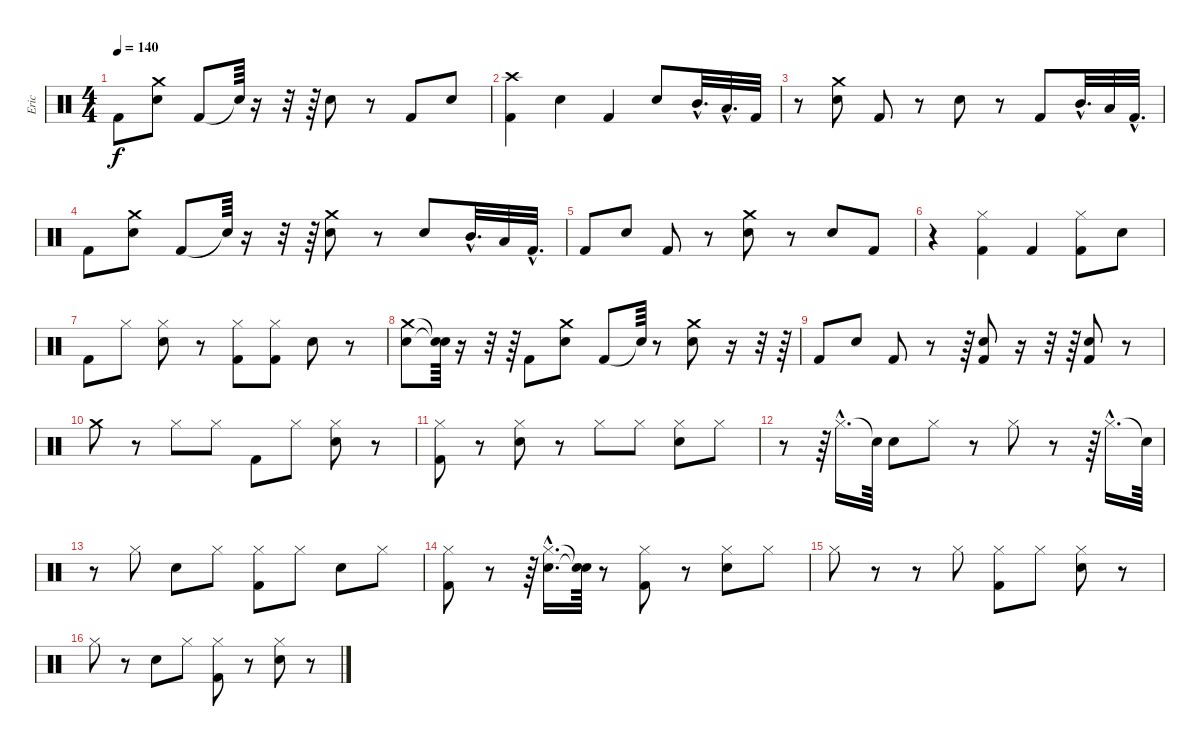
\track ("Eric" "Eric") {instrument percussion}
\staff {score}
\articulation defaults
\ts (4 4)
\tempo 140
\clef neutral
\ks c "Kick (hit) 2".8{dy f}
("Crash medium (hit)" "Electric Snare (hit)").8 "Kick (hit) 2".8 "Snare (hit)"{t}.64 r.16 r.32 r.64 "Electric Snare (hit)".8 r.8 "Kick (hit) 2".8 "Electric Snare (hit)".8 |
("Crash high (hit)" "Kick (hit) 2").4 "Electric Snare (hit)".4 "Kick (hit) 2".4 "Electric Snare (hit)".8 "Mid Tom (hit)"{hac}.32{d} "Low Tom (hit)"{hac}.32{d} "Kick (hit) 2".32 |
r.8 ("Crash medium (hit)" "Electric Snare (hit)").8 "Kick (hit) 2".8 r.8 "Electric Snare (hit)".8 r.8 "Kick (hit) 2".8 "Mid Tom (hit)"{hac}.32{d} "Low Tom (hit)".32 "Kick (hit) 2"{hac}.32{d} |
"Kick (hit) 2".8 ("Crash medium (hit)" "Electric Snare (hit)").8 "Kick (hit) 2".8 "Snare (hit)"{t}.64 r.16 r.32 r.64 ("Crash medium (hit)" "Electric Snare (hit)").8 r.8 "Electric Snare (hit)".8 "Mid Tom (hit)"{hac}.32{d} "Low Tom (hit)".32 "Kick (hit) 2"{hac}.32{d} |
"Kick (hit) 2".8 "Electric Snare (hit)".8 "Kick (hit) 2".8 r.8 ("Crash medium (hit)" "Electric Snare (hit)").8 r.8 "Electric Snare (hit)".8 "Kick (hit) 2".8 |
r.4 ("Hi-Hat (closed)" "Kick (hit) 2").4 "Kick (hit) 2".4 ("Hi-Hat (closed)" "Kick (hit) 2").8 "Electric Snare (hit)".8 |
"Kick (hit) 2".8 "Hi-Hat (closed)".8 ("Hi-Hat (closed)" "Electric Snare (hit)").8 r.8 ("Hi-Hat (closed)" "Kick (hit) 2").8 ("Hi-Hat (closed)" "Kick (hit) 2").8 "Electric Snare (hit)".8 r.8 |
("Crash medium (hit)" "Electric Snare (hit)").8 ("Snare (hit)"{t} "Snare (hit)"{t}).64 r.16 r.32 r.64 "Kick (hit) 2".8 ("Crash medium (hit)" "Electric Snare (hit)").8 "Kick (hit) 2".8 "Snare (hit)"{t}.64 r.8 ("Crash medium (hit)" "Electric Snare (hit)").8 r.16 r.32 r.64 |
"Kick (hit) 2".8 "Electric Snare (hit)".8 "Kick (hit) 2".8 r.8 r.64 ("Kick (hit) 2" "Electric Snare (hit)").8 r.16 r.32 r.64 ("Kick (hit) 2" "Electric Snare (hit)").8 r.8 |
"Crash medium (hit)".8 r.8 "Hi-Hat (closed)".8 "Hi-Hat (closed)".8 "Kick (hit) 2".8 "Hi-Hat (closed)".8 ("Electric Snare (hit)" "Hi-Hat (closed)").8 r.8 |
("Kick (hit) 2" "Hi-Hat (closed)").8 r.8 ("Hi-Hat (closed)" "Electric Snare (hit)").8 r.8 "Hi-Hat (closed)".8 "Hi-Hat (closed)".8 ("Hi-Hat (closed)" "Electric Snare (hit)").8 "Hi-Hat (closed)".8 |
r.8 r.64 "Hi-Hat (closed)"{hac}.16{d} "Snare (hit)"{t}.64 "Electric Snare (hit)".8 "Hi-Hat (closed)".8 r.8 "Hi-Hat (closed)".8 r.8 r.64 "Hi-Hat (closed)"{hac}.16{d} "Snare (hit)"{t}.64 |
r.8 "Hi-Hat (closed)".8 "Electric Snare (hit)".8 "Hi-Hat (closed)".8 ("Kick (hit) 2" "Hi-Hat (closed)").8 "Hi-Hat (closed)".8 "Electric Snare (hit)".8 "Hi-Hat (closed)".8 |
("Kick (hit) 2" "Hi-Hat (closed)").8 r.8 r.64 ("Hi-Hat (closed)"{hac} "Electric Snare (hit)"{hac}).16{d} ("Snare (hit)"{t} "Snare (hit)"{t}).64 r.8 ("Kick (hit) 2" "Hi-Hat (closed)").8 r.8 ("Hi-Hat (closed)" "Electric Snare (hit)").8 "Hi-Hat (closed)".8 |
"Hi-Hat (closed)".8 r.8 r.8 "Hi-Hat (closed)".8 ("Kick (hit) 2" "Hi-Hat (closed)").8 "Hi-Hat (closed)".8 ("Hi-Hat (closed)" "Electric Snare (hit)").8 r.8 |
"Hi-Hat (closed)".8 r.8 "Electric Snare (hit)".8 "Hi-Hat (closed)".8 ("Kick (hit) 2" "Hi-Hat (closed)").8 r.8 ("Hi-Hat (closed)" "Electric Snare (hit)").8 r.8
